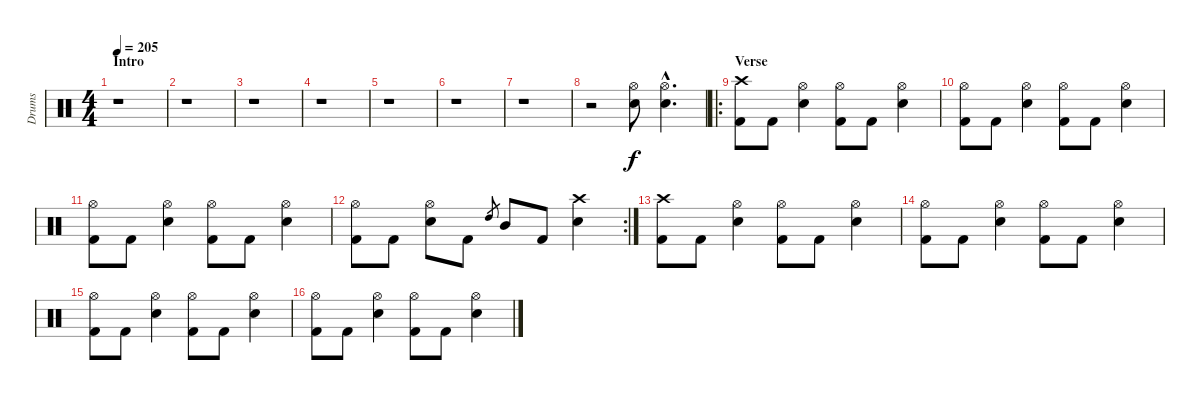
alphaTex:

\track ("Drums" "Drums") {instrument percussion}
\staff {score}
\articulation defaults
\ts (4 4)
\section ("" "Intro")
\tempo 205
\clef neutral
\ks c
r.1{dy f} |
r.1 |
r.1 |
r.1 |
r.1 |
r.1 |
r.1 |
r.2 ("Hi-Hat (open)" "Electric Snare (hit)").8 ("Hi-Hat (open)"{hac} "Electric Snare (hit)"{hac}).4{d} |
\ro
\section ("" "Verse")
("Crash high (hit)" "Kick (hit) 2").8 "Kick (hit) 2".8 ("Hi-Hat (open)" "Electric Snare (hit)").4 ("Hi-Hat (open)" "Kick (hit) 2").8 "Kick (hit) 2".8 ("Hi-Hat (open)" "Electric Snare (hit)").4 |
("Hi-Hat (open)" "Kick (hit) 2").8 "Kick (hit) 2".8 ("Hi-Hat (open)" "Electric Snare (hit)").4 ("Hi-Hat (open)" "Kick (hit) 2").8 "Kick (hit) 2".8 ("Hi-Hat (open)" "Electric Snare (hit)").4 |
("Hi-Hat (open)" "Kick (hit) 2").8 "Kick (hit) 2".8 ("Hi-Hat (open)" "Electric Snare (hit)").4 ("Hi-Hat (open)" "Kick (hit) 2").8 "Kick (hit) 2".8 ("Hi-Hat (open)" "Electric Snare (hit)").4 |
\rc 2
("Hi-Hat (open)" "Kick (hit) 2").8 "Kick (hit) 2".8 ("Hi-Hat (open)" "Electric Snare (hit)").8 "Kick (hit) 2".8 "High Tom (hit)".8{gr} "Mid Tom (hit)".8 "Kick (hit) 2".8 ("Crash high (hit)" "Electric Snare (hit)").4 |
("Crash high (hit)" "Kick (hit) 2").8 "Kick (hit) 2".8 ("Hi-Hat (open)" "Electric Snare (hit)").4 ("Hi-Hat (open)" "Kick (hit) 2").8 "Kick (hit) 2".8 ("Hi-Hat (open)" "Electric Snare (hit)").4 |
("Hi-Hat (open)" "Kick (hit) 2").8 "Kick (hit) 2".8 ("Hi-Hat (open)" "Electric Snare (hit)").4 ("Hi-Hat (open)" "Kick (hit) 2").8 "Kick (hit) 2".8 ("Hi-Hat (open)" "Electric Snare (hit)").4 |
("Hi-Hat (open)" "Kick (hit) 2").8 "Kick (hit) 2".8 ("Hi-Hat (open)" "Electric Snare (hit)").4 ("Hi-Hat (open)" "Kick (hit) 2").8 "Kick (hit) 2".8 ("Hi-Hat (open)" "Electric Snare (hit)").4 |
("Hi-Hat (open)" "Kick (hit) 2").8 "Kick (hit) 2".8 ("Hi-Hat (open)" "Electric Snare (hit)").4 ("Hi-Hat (open)" "Kick (hit) 2").8 "Kick (hit) 2".8 ("Hi-Hat (open)" "Electric Snare (hit)").4
